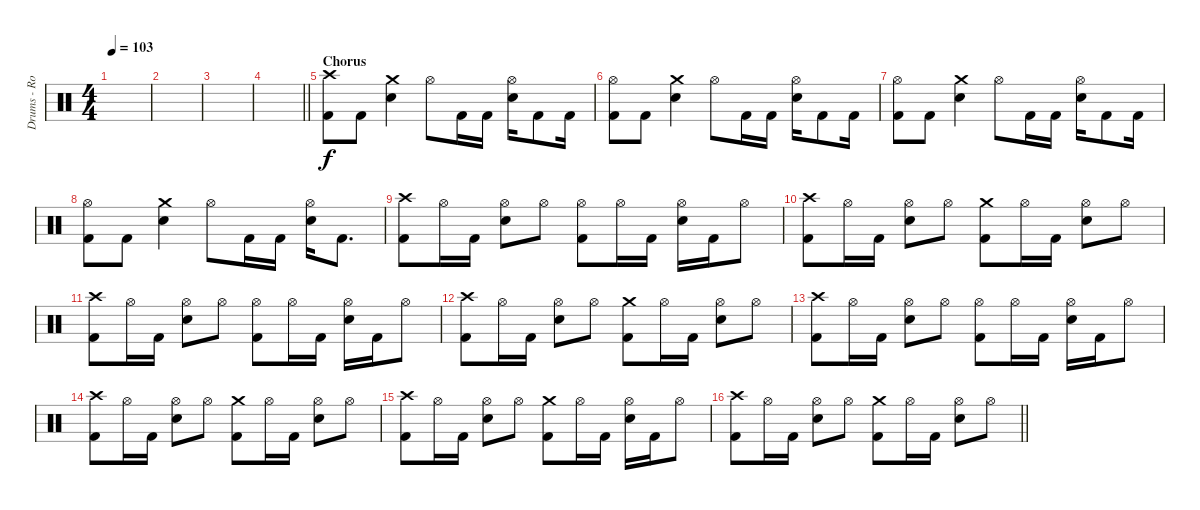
\track ("Drums - Rob Bourdon" "Drums - Ro") {instrument percussion}
\staff {score}
\articulation defaults
\ts (4 4)
\tempo 103
\clef neutral
\ks c
|
|
|
\barLineRight lightlight
|
\section ("" "Chorus")
("Crash high (hit)" "Kick (hit) 2").8 "Kick (hit) 2".8 ("Crash medium (hit)" "Snare (hit) 2").4 "Hi-Hat (open)".8 "Kick (hit) 2".16 "Kick (hit) 2".16 ("Hi-Hat (open)" "Snare (hit) 2").16 "Kick (hit) 2".8 "Kick (hit) 2".16 |
("Hi-Hat (open)" "Kick (hit) 2").8 "Kick (hit) 2".8 ("Crash medium (hit)" "Snare (hit) 2").4 "Hi-Hat (open)".8 "Kick (hit) 2".16 "Kick (hit) 2".16 ("Hi-Hat (open)" "Snare (hit) 2").16 "Kick (hit) 2".8 "Kick (hit) 2".16 |
("Hi-Hat (open)" "Kick (hit) 2").8 "Kick (hit) 2".8 ("Crash medium (hit)" "Snare (hit) 2").4 "Hi-Hat (open)".8 "Kick (hit) 2".16 "Kick (hit) 2".16 ("Hi-Hat (open)" "Snare (hit) 2").16 "Kick (hit) 2".8 "Kick (hit) 2".16 |
("Hi-Hat (open)" "Kick (hit) 2").8 "Kick (hit) 2".8 ("Crash medium (hit)" "Snare (hit) 2").4 "Hi-Hat (open)".8 "Kick (hit) 2".16 "Kick (hit) 2".16 ("Hi-Hat (open)" "Snare (hit) 2").16 "Kick (hit) 2".8{d} |
("Crash high (hit)" "Kick (hit) 2").8 "Hi-Hat (open)".16 "Kick (hit) 2".16 ("Hi-Hat (open)" "Snare (hit) 2").8 "Hi-Hat (open)".8 ("Hi-Hat (open)" "Kick (hit) 2").8 "Hi-Hat (open)".16 "Kick (hit) 2".16 ("Hi-Hat (open)" "Snare (hit) 2").16 "Kick (hit) 2".16 "Hi-Hat (open)".8 |
("Crash high (hit)" "Kick (hit) 2").8 "Hi-Hat (open)".16 "Kick (hit) 2".16 ("Hi-Hat (open)" "Snare (hit) 2").8 "Hi-Hat (open)".8 ("Crash medium (hit)" "Kick (hit) 2").8 "Hi-Hat (open)".16 "Kick (hit) 2".16 ("Hi-Hat (open)" "Snare (hit) 2").8 "Hi-Hat (open)".8 |
("Crash high (hit)" "Kick (hit) 2").8 "Hi-Hat (open)".16 "Kick (hit) 2".16 ("Hi-Hat (open)" "Snare (hit) 2").8 "Hi-Hat (open)".8 ("Hi-Hat (open)" "Kick (hit) 2").8 "Hi-Hat (open)".16 "Kick (hit) 2".16 ("Hi-Hat (open)" "Snare (hit) 2").16 "Kick (hit) 2".16 "Hi-Hat (open)".8 |
("Crash high (hit)" "Kick (hit) 2").8 "Hi-Hat (open)".16 "Kick (hit) 2".16 ("Hi-Hat (open)" "Snare (hit) 2").8 "Hi-Hat (open)".8 ("Crash medium (hit)" "Kick (hit) 2").8 "Hi-Hat (open)".16 "Kick (hit) 2".16 ("Hi-Hat (open)" "Snare (hit) 2").8 "Hi-Hat (open)".8 |
("Crash high (hit)" "Kick (hit) 2").8 "Hi-Hat (open)".16 "Kick (hit) 2".16 ("Hi-Hat (open)" "Snare (hit) 2").8 "Hi-Hat (open)".8 ("Hi-Hat (open)" "Kick (hit) 2").8 "Hi-Hat (open)".16 "Kick (hit) 2".16 ("Hi-Hat (open)" "Snare (hit) 2").16 "Kick (hit) 2".16 "Hi-Hat (open)".8 |
("Crash high (hit)" "Kick (hit) 2").8 "Hi-Hat (open)".16 "Kick (hit) 2".16 ("Hi-Hat (open)" "Snare (hit) 2").8 "Hi-Hat (open)".8 ("Crash medium (hit)" "Kick (hit) 2").8 "Hi-Hat (open)".16 "Kick (hit) 2".16 ("Hi-Hat (open)" "Snare (hit) 2").8 "Hi-Hat (open)".8 |
("Crash high (hit)" "Kick (hit) 2").8 "Hi-Hat (open)".16 "Kick (hit) 2".16 ("Hi-Hat (open)" "Snare (hit) 2").8 "Hi-Hat (open)".8 ("Crash medium (hit)" "Kick (hit) 2").8 "Hi-Hat (open)".16 "Kick (hit) 2".16 ("Hi-Hat (open)" "Snare (hit) 2").16 "Kick (hit) 2".16 "Hi-Hat (open)".8 |
\barLineRight lightlight
("Crash high (hit)" "Kick (hit) 2").8 "Hi-Hat (open)".16 "Kick (hit) 2".16 ("Hi-Hat (open)" "Snare (hit) 2").8 "Hi-Hat (open)".8 ("Crash medium (hit)" "Kick (hit) 2").8 "Hi-Hat (open)".16 "Kick (hit) 2".16 ("Hi-Hat (open)" "Snare (hit) 2").8 "Hi-Hat (open)".8
